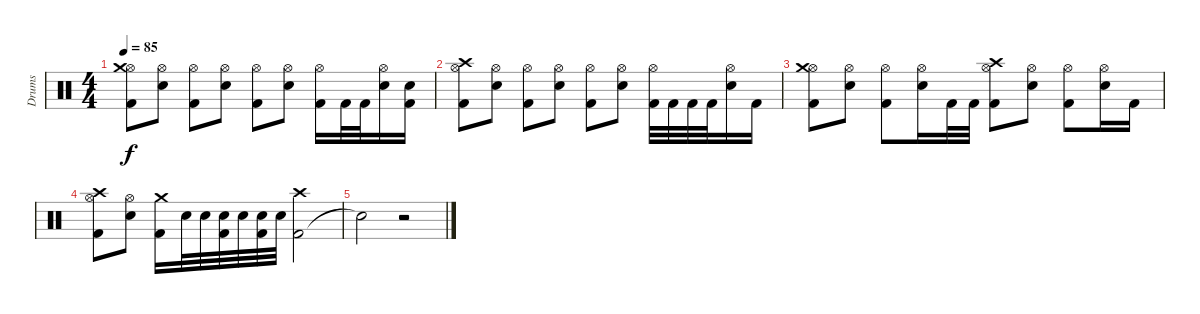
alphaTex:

\track ("Drums" "Drums") {instrument percussion}
\staff {score}
\articulation defaults
\ts (4 4)
\tempo 85
\clef neutral
\ks c
("Kick (hit) 2" "Hi-Hat (open)" "Crash medium (hit)").8{dy f} ("Electric Snare (hit)" "Hi-Hat (open)").8 ("Kick (hit) 2" "Hi-Hat (open)").8 ("Electric Snare (hit)" "Hi-Hat (open)").8 ("Kick (hit) 2" "Hi-Hat (open)").8 ("Electric Snare (hit)" "Hi-Hat (open)").8 ("Kick (hit) 2" "Hi-Hat (open)").16 "Kick (hit) 2".32 "Kick (hit) 2".32 ("Electric Snare (hit)" "Hi-Hat (open)").16 ("Kick (hit) 2" "Electric Snare (hit)").16 |
("Kick (hit) 2" "Hi-Hat (open)" "Crash high (hit)").8 ("Electric Snare (hit)" "Hi-Hat (open)").8 ("Kick (hit) 2" "Hi-Hat (open)").8 ("Electric Snare (hit)" "Hi-Hat (open)").8 ("Kick (hit) 2" "Hi-Hat (open)").8 ("Electric Snare (hit)" "Hi-Hat (open)").8 ("Kick (hit) 2" "Hi-Hat (open)").32 "Kick (hit) 2".32 "Kick (hit) 2".32 "Kick (hit) 2".32 ("Electric Snare (hit)" "Hi-Hat (open)").16 "Kick (hit) 2".16 |
("Kick (hit) 2" "Hi-Hat (open)" "Crash medium (hit)").8 ("Electric Snare (hit)" "Hi-Hat (open)").8 ("Kick (hit) 2" "Hi-Hat (open)").8 ("Electric Snare (hit)" "Hi-Hat (open)").16 "Kick (hit) 2".32 "Kick (hit) 2".32 ("Kick (hit) 2" "Hi-Hat (open)" "Crash high (hit)").8 ("Electric Snare (hit)" "Hi-Hat (open)").8 ("Kick (hit) 2" "Hi-Hat (open)").8 ("Electric Snare (hit)" "Hi-Hat (open)").16 "Kick (hit) 2".16 |
("Kick (hit) 2" "Hi-Hat (open)" "Crash high (hit)").8 ("Electric Snare (hit)" "Hi-Hat (open)").8 ("Kick (hit) 2" "Crash medium (hit)").16 "Electric Snare (hit)".32 "Electric Snare (hit)".32 ("Kick (hit) 2" "Electric Snare (hit)").32 "Electric Snare (hit)".32 ("Kick (hit) 2" "Electric Snare (hit)").32 "Electric Snare (hit)".32 ("Kick (hit) 2" "Crash high (hit)").2 |
"Snare (hit)"{t}.2 r.2
